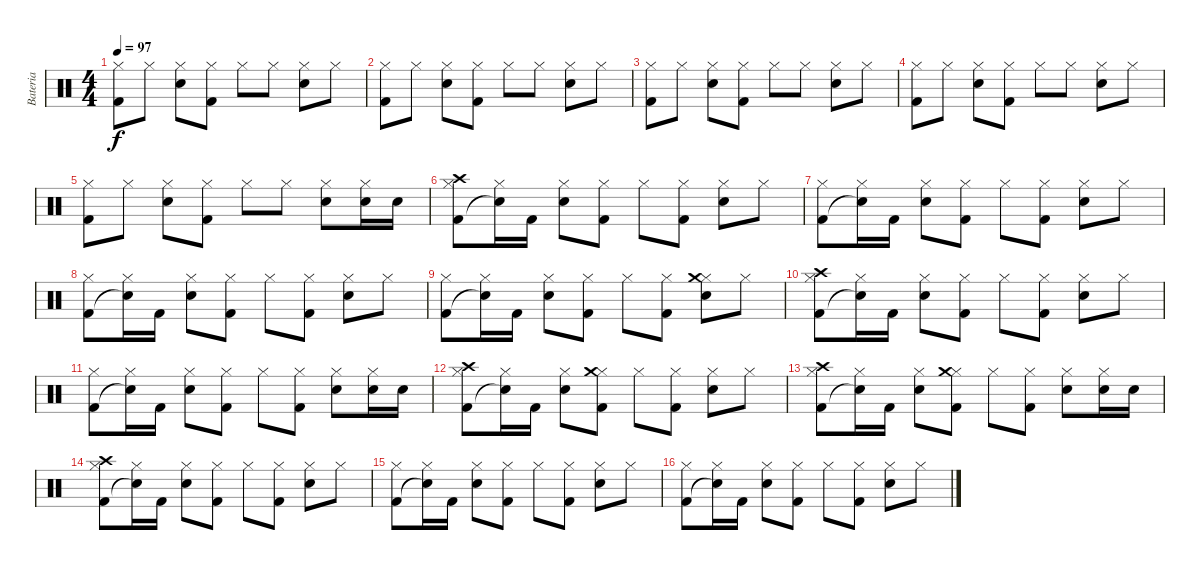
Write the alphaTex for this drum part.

\track ("Bateria" "Bateria") {instrument percussion}
\staff {score}
\articulation defaults
\ts (4 4)
\tempo 97
\clef neutral
\ks c
("Kick (hit) 2" "Hi-Hat (closed)").8{dy f} "Hi-Hat (closed)".8 ("Electric Snare (hit)" "Hi-Hat (closed)").8 ("Kick (hit) 2" "Hi-Hat (closed)").8 "Hi-Hat (closed)".8 "Hi-Hat (closed)".8 ("Electric Snare (hit)" "Hi-Hat (closed)").8 "Hi-Hat (closed)".8 |
("Kick (hit) 2" "Hi-Hat (closed)").8 "Hi-Hat (closed)".8 ("Electric Snare (hit)" "Hi-Hat (closed)").8 ("Kick (hit) 2" "Hi-Hat (closed)").8 "Hi-Hat (closed)".8 "Hi-Hat (closed)".8 ("Electric Snare (hit)" "Hi-Hat (closed)").8 "Hi-Hat (closed)".8 |
("Kick (hit) 2" "Hi-Hat (closed)").8 "Hi-Hat (closed)".8 ("Electric Snare (hit)" "Hi-Hat (closed)").8 ("Kick (hit) 2" "Hi-Hat (closed)").8 "Hi-Hat (closed)".8 "Hi-Hat (closed)".8 ("Electric Snare (hit)" "Hi-Hat (closed)").8 "Hi-Hat (closed)".8 |
("Kick (hit) 2" "Hi-Hat (closed)").8 "Hi-Hat (closed)".8 ("Electric Snare (hit)" "Hi-Hat (closed)").8 ("Kick (hit) 2" "Hi-Hat (closed)").8 "Hi-Hat (closed)".8 "Hi-Hat (closed)".8 ("Electric Snare (hit)" "Hi-Hat (closed)").8 "Hi-Hat (closed)".8 |
("Kick (hit) 2" "Hi-Hat (closed)").8 "Hi-Hat (closed)".8 ("Electric Snare (hit)" "Hi-Hat (closed)").8 ("Kick (hit) 2" "Hi-Hat (closed)").8 "Hi-Hat (closed)".8 "Hi-Hat (closed)".8 ("Electric Snare (hit)" "Hi-Hat (closed)").8 ("Electric Snare (hit)" "Hi-Hat (closed)").16 "Electric Snare (hit)".16 |
("Kick (hit) 2" "Hi-Hat (closed)" "Crash high (hit)").8 ("Snare (hit)"{t} "Hi-Hat (closed)").16 "Kick (hit) 2".16 ("Electric Snare (hit)" "Hi-Hat (closed)").8 ("Kick (hit) 2" "Hi-Hat (closed)").8 "Hi-Hat (closed)".8 ("Kick (hit) 2" "Hi-Hat (closed)").8 ("Electric Snare (hit)" "Hi-Hat (closed)").8 "Hi-Hat (closed)".8 |
("Kick (hit) 2" "Hi-Hat (closed)").8 ("Snare (hit)"{t} "Hi-Hat (closed)").16 "Kick (hit) 2".16 ("Electric Snare (hit)" "Hi-Hat (closed)").8 ("Kick (hit) 2" "Hi-Hat (closed)").8 "Hi-Hat (closed)".8 ("Kick (hit) 2" "Hi-Hat (closed)").8 ("Electric Snare (hit)" "Hi-Hat (closed)").8 "Hi-Hat (closed)".8 |
("Kick (hit) 2" "Hi-Hat (closed)").8 ("Snare (hit)"{t} "Hi-Hat (closed)").16 "Kick (hit) 2".16 ("Electric Snare (hit)" "Hi-Hat (closed)").8 ("Kick (hit) 2" "Hi-Hat (closed)").8 "Hi-Hat (closed)".8 ("Kick (hit) 2" "Hi-Hat (closed)").8 ("Electric Snare (hit)" "Hi-Hat (closed)").8 "Hi-Hat (closed)".8 |
("Kick (hit) 2" "Hi-Hat (closed)").8 ("Snare (hit)"{t} "Hi-Hat (closed)").16 "Kick (hit) 2".16 ("Electric Snare (hit)" "Hi-Hat (closed)").8 ("Kick (hit) 2" "Hi-Hat (closed)").8 "Hi-Hat (closed)".8 ("Kick (hit) 2" "Hi-Hat (closed)").8 ("Electric Snare (hit)" "Hi-Hat (closed)" "Crash medium (hit)").8 "Hi-Hat (closed)".8 |
("Kick (hit) 2" "Hi-Hat (closed)" "Crash high (hit)").8 ("Snare (hit)"{t} "Hi-Hat (closed)").16 "Kick (hit) 2".16 ("Electric Snare (hit)" "Hi-Hat (closed)").8 ("Kick (hit) 2" "Hi-Hat (closed)").8 "Hi-Hat (closed)".8 ("Kick (hit) 2" "Hi-Hat (closed)").8 ("Electric Snare (hit)" "Hi-Hat (closed)").8 "Hi-Hat (closed)".8 |
("Kick (hit) 2" "Hi-Hat (closed)").8 ("Snare (hit)"{t} "Hi-Hat (closed)").16 "Kick (hit) 2".16 ("Electric Snare (hit)" "Hi-Hat (closed)").8 ("Kick (hit) 2" "Hi-Hat (closed)").8 "Hi-Hat (closed)".8 ("Kick (hit) 2" "Hi-Hat (closed)").8 ("Electric Snare (hit)" "Hi-Hat (closed)").8 ("Electric Snare (hit)" "Hi-Hat (closed)").16 "Electric Snare (hit)".16 |
("Kick (hit) 2" "Hi-Hat (closed)" "Crash high (hit)").8 ("Snare (hit)"{t} "Hi-Hat (closed)").16 "Kick (hit) 2".16 ("Electric Snare (hit)" "Hi-Hat (closed)").8 ("Kick (hit) 2" "Hi-Hat (closed)" "Crash medium (hit)").8 "Hi-Hat (closed)".8 ("Kick (hit) 2" "Hi-Hat (closed)").8 ("Electric Snare (hit)" "Hi-Hat (closed)").8 "Hi-Hat (closed)".8 |
("Kick (hit) 2" "Hi-Hat (closed)" "Crash high (hit)").8 ("Snare (hit)"{t} "Hi-Hat (closed)").16 "Kick (hit) 2".16 ("Electric Snare (hit)" "Hi-Hat (closed)").8 ("Kick (hit) 2" "Hi-Hat (closed)" "Crash medium (hit)").8 "Hi-Hat (closed)".8 ("Kick (hit) 2" "Hi-Hat (closed)").8 ("Electric Snare (hit)" "Hi-Hat (closed)").8 ("Electric Snare (hit)" "Hi-Hat (closed)").16 "Electric Snare (hit)".16 |
("Kick (hit) 2" "Hi-Hat (closed)" "Crash high (hit)").8 ("Snare (hit)"{t} "Hi-Hat (closed)").16 "Kick (hit) 2".16 ("Electric Snare (hit)" "Hi-Hat (closed)").8 ("Kick (hit) 2" "Hi-Hat (closed)").8 "Hi-Hat (closed)".8 ("Kick (hit) 2" "Hi-Hat (closed)").8 ("Electric Snare (hit)" "Hi-Hat (closed)").8 "Hi-Hat (closed)".8 |
("Kick (hit) 2" "Hi-Hat (closed)").8 ("Snare (hit)"{t} "Hi-Hat (closed)").16 "Kick (hit) 2".16 ("Electric Snare (hit)" "Hi-Hat (closed)").8 ("Kick (hit) 2" "Hi-Hat (closed)").8 "Hi-Hat (closed)".8 ("Kick (hit) 2" "Hi-Hat (closed)").8 ("Electric Snare (hit)" "Hi-Hat (closed)").8 "Hi-Hat (closed)".8 |
("Kick (hit) 2" "Hi-Hat (closed)").8 ("Snare (hit)"{t} "Hi-Hat (closed)").16 "Kick (hit) 2".16 ("Electric Snare (hit)" "Hi-Hat (closed)").8 ("Kick (hit) 2" "Hi-Hat (closed)").8 "Hi-Hat (closed)".8 ("Kick (hit) 2" "Hi-Hat (closed)").8 ("Electric Snare (hit)" "Hi-Hat (closed)").8 "Hi-Hat (closed)".8
